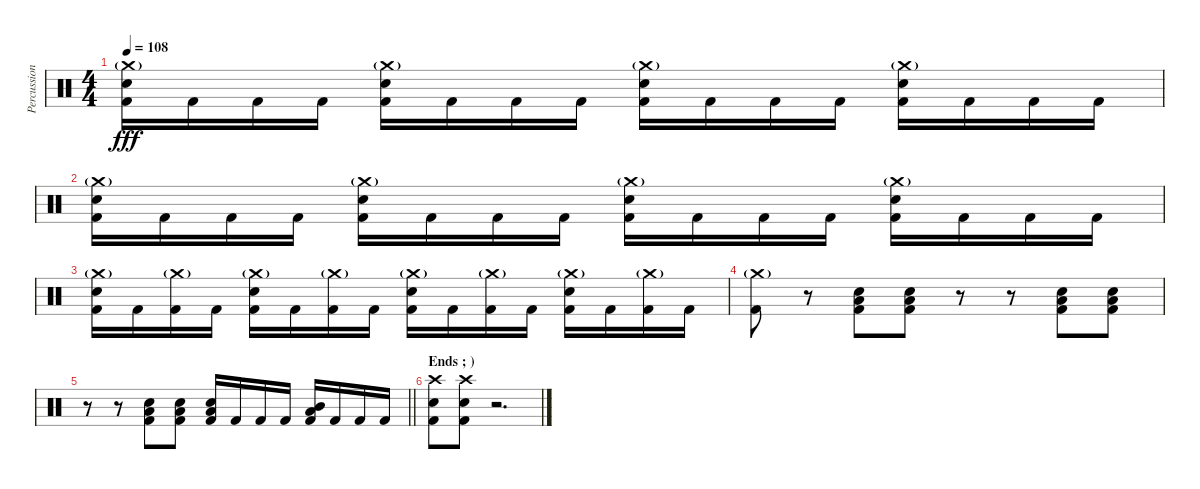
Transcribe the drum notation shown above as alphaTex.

\track ("Percussion" "Percussion") {instrument percussion}
\staff {score}
\articulation defaults
\ts (4 4)
\tempo 108
\clef neutral
\ks c
("Crash medium (hit)"{g} "Electric Snare (hit)" "Kick (hit) 2").16{dy fff} "Kick (hit) 2".16 "Kick (hit) 2".16 "Kick (hit) 2".16 ("Crash medium (hit)"{g} "Electric Snare (hit)" "Kick (hit) 2").16 "Kick (hit) 2".16 "Kick (hit) 2".16 "Kick (hit) 2".16 ("Crash medium (hit)"{g} "Electric Snare (hit)" "Kick (hit) 2").16 "Kick (hit) 2".16 "Kick (hit) 2".16 "Kick (hit) 2".16 ("Crash medium (hit)"{g} "Electric Snare (hit)" "Kick (hit) 2").16 "Kick (hit) 2".16 "Kick (hit) 2".16 "Kick (hit) 2".16 |
("Crash medium (hit)"{g} "Electric Snare (hit)" "Kick (hit) 2").16 "Kick (hit) 2".16 "Kick (hit) 2".16 "Kick (hit) 2".16 ("Crash medium (hit)"{g} "Electric Snare (hit)" "Kick (hit) 2").16 "Kick (hit) 2".16 "Kick (hit) 2".16 "Kick (hit) 2".16 ("Crash medium (hit)"{g} "Electric Snare (hit)" "Kick (hit) 2").16 "Kick (hit) 2".16 "Kick (hit) 2".16 "Kick (hit) 2".16 ("Crash medium (hit)"{g} "Electric Snare (hit)" "Kick (hit) 2").16 "Kick (hit) 2".16 "Kick (hit) 2".16 "Kick (hit) 2".16 |
("Crash medium (hit)"{g} "Electric Snare (hit)" "Kick (hit) 2").16 "Kick (hit) 2".16 ("Crash medium (hit)"{g} "Kick (hit) 2").16 "Kick (hit) 2".16 ("Crash medium (hit)"{g} "Electric Snare (hit)" "Kick (hit) 2").16 "Kick (hit) 2".16 ("Crash medium (hit)"{g} "Kick (hit) 2").16 "Kick (hit) 2".16 ("Crash medium (hit)"{g} "Electric Snare (hit)" "Kick (hit) 2").16 "Kick (hit) 2".16 ("Crash medium (hit)"{g} "Kick (hit) 2").16 "Kick (hit) 2".16 ("Crash medium (hit)"{g} "Electric Snare (hit)" "Kick (hit) 2").16 "Kick (hit) 2".16 ("Crash medium (hit)"{g} "Kick (hit) 2").16 "Kick (hit) 2".16 |
("Crash medium (hit)"{g} "Kick (hit) 2").8 r.8 ("Low Floor Tom (hit)" "Electric Snare (hit)" "Kick (hit) 2").8 ("Low Floor Tom (hit)" "Electric Snare (hit)" "Kick (hit) 2").8 r.8 r.8 ("Low Floor Tom (hit)" "Electric Snare (hit)" "Kick (hit) 2").8 ("Low Floor Tom (hit)" "Electric Snare (hit)" "Kick (hit) 2").8 |
\barLineRight lightlight
r.8 r.8 ("Low Floor Tom (hit)" "Electric Snare (hit)" "Kick (hit) 2").8 ("Low Floor Tom (hit)" "Electric Snare (hit)" "Kick (hit) 2").8 ("Low Floor Tom (hit)" "Electric Snare (hit)" "Kick (hit) 2").16 "Kick (hit) 2".16 "Kick (hit) 2".16 "Kick (hit) 2".16 ("Mid Tom (hit)" "Low Tom (hit)" "Kick (hit) 2").16 "Kick (hit) 2".16 "Kick (hit) 2".16 "Kick (hit) 2".16 |
\section ("" "Ends ; )")
("Crash high (hit)" "Electric Snare (hit)" "Kick (hit) 2").8 ("Crash high (hit)" "Electric Snare (hit)" "Kick (hit) 2").8 r.2{d}
